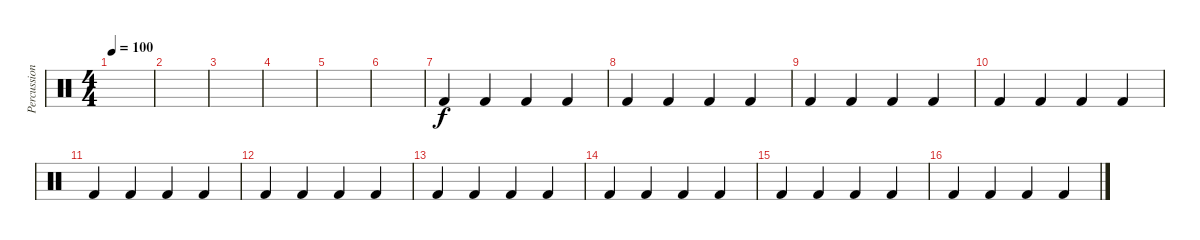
\track ("Percussions" "Percussion") {instrument percussion}
\staff {score}
\articulation defaults
\ts (4 4)
\tempo 100
\clef neutral
\ks c
|
|
|
|
|
|
"Kick (hit) 2".4 "Kick (hit) 2".4 "Kick (hit) 2".4 "Kick (hit) 2".4 |
"Kick (hit) 2".4 "Kick (hit) 2".4 "Kick (hit) 2".4 "Kick (hit) 2".4 |
"Kick (hit) 2".4 "Kick (hit) 2".4 "Kick (hit) 2".4 "Kick (hit) 2".4 |
"Kick (hit) 2".4 "Kick (hit) 2".4 "Kick (hit) 2".4 "Kick (hit) 2".4 |
"Kick (hit) 2".4 "Kick (hit) 2".4 "Kick (hit) 2".4 "Kick (hit) 2".4 |
"Kick (hit) 2".4 "Kick (hit) 2".4 "Kick (hit) 2".4 "Kick (hit) 2".4 |
"Kick (hit) 2".4 "Kick (hit) 2".4 "Kick (hit) 2".4 "Kick (hit) 2".4 |
"Kick (hit) 2".4 "Kick (hit) 2".4 "Kick (hit) 2".4 "Kick (hit) 2".4 |
"Kick (hit) 2".4 "Kick (hit) 2".4 "Kick (hit) 2".4 "Kick (hit) 2".4 |
"Kick (hit) 2".4 "Kick (hit) 2".4 "Kick (hit) 2".4 "Kick (hit) 2".4
